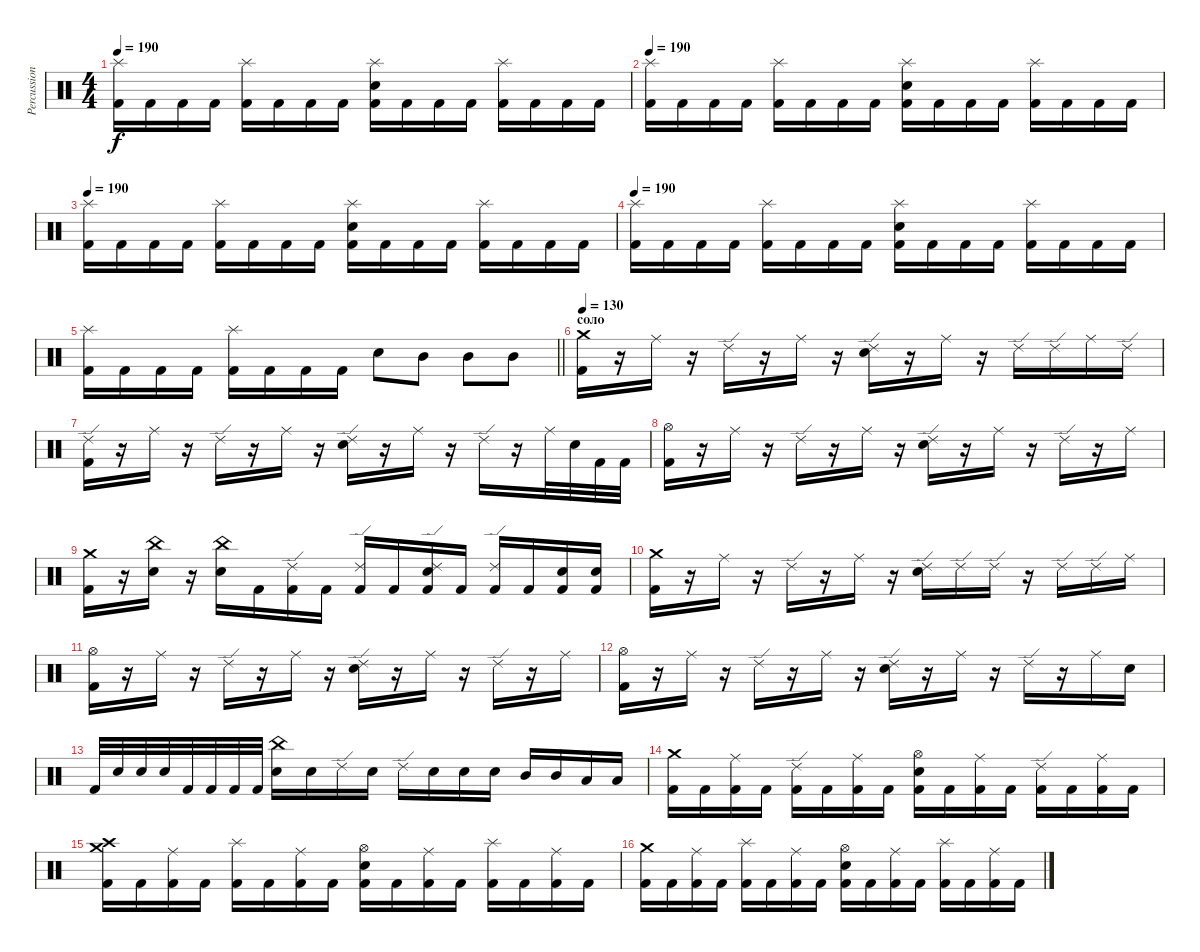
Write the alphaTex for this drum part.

\track ("Percussion" "Percussion") {instrument percussion}
\staff {score}
\articulation defaults
\ts (4 4)
\tempo 190
\clef neutral
\ks c
("Splash (hit)" "Kick (hit) 2").16{dy f} "Kick (hit) 2".16 "Kick (hit) 2".16 "Kick (hit) 2".16 ("Splash (hit)" "Kick (hit) 2").16 "Kick (hit) 2".16 "Kick (hit) 2".16 "Kick (hit) 2".16 ("Splash (hit)" "Kick (hit) 2" "Electric Snare (hit)").16 "Kick (hit) 2".16 "Kick (hit) 2".16 "Kick (hit) 2".16 ("Splash (hit)" "Kick (hit) 2").16 "Kick (hit) 2".16 "Kick (hit) 2".16 "Kick (hit) 2".16 |
\tempo 190
("Splash (hit)" "Kick (hit) 2").16 "Kick (hit) 2".16 "Kick (hit) 2".16 "Kick (hit) 2".16 ("Splash (hit)" "Kick (hit) 2").16 "Kick (hit) 2".16 "Kick (hit) 2".16 "Kick (hit) 2".16 ("Splash (hit)" "Kick (hit) 2" "Electric Snare (hit)").16 "Kick (hit) 2".16 "Kick (hit) 2".16 "Kick (hit) 2".16 ("Splash (hit)" "Kick (hit) 2").16 "Kick (hit) 2".16 "Kick (hit) 2".16 "Kick (hit) 2".16 |
\tempo 190
("Splash (hit)" "Kick (hit) 2").16 "Kick (hit) 2".16 "Kick (hit) 2".16 "Kick (hit) 2".16 ("Splash (hit)" "Kick (hit) 2").16 "Kick (hit) 2".16 "Kick (hit) 2".16 "Kick (hit) 2".16 ("Splash (hit)" "Kick (hit) 2" "Electric Snare (hit)").16 "Kick (hit) 2".16 "Kick (hit) 2".16 "Kick (hit) 2".16 ("Splash (hit)" "Kick (hit) 2").16 "Kick (hit) 2".16 "Kick (hit) 2".16 "Kick (hit) 2".16 |
\tempo 190
("Splash (hit)" "Kick (hit) 2").16 "Kick (hit) 2".16 "Kick (hit) 2".16 "Kick (hit) 2".16 ("Splash (hit)" "Kick (hit) 2").16 "Kick (hit) 2".16 "Kick (hit) 2".16 "Kick (hit) 2".16 ("Splash (hit)" "Kick (hit) 2" "Electric Snare (hit)").16 "Kick (hit) 2".16 "Kick (hit) 2".16 "Kick (hit) 2".16 ("Splash (hit)" "Kick (hit) 2").16 "Kick (hit) 2".16 "Kick (hit) 2".16 "Kick (hit) 2".16 |
\barLineRight lightlight
("Splash (hit)" "Kick (hit) 2").16 "Kick (hit) 2".16 "Kick (hit) 2".16 "Kick (hit) 2".16 ("Splash (hit)" "Kick (hit) 2").16 "Kick (hit) 2".16 "Kick (hit) 2".16 "Kick (hit) 2".16 "Electric Snare (hit)".8 "Mid Tom (hit)".8 "Mid Tom (hit)".8 "Mid Tom (hit)".8 |
\section ("" "соло")
\tempo 130
("Crash medium (hit)" "Kick (hit) 2").16 r.16 "Ride (middle)".16 r.16 "Ride (edge) 2".16 r.16 "Ride (middle)".16 r.16 ("Ride (edge) 2" "Electric Snare (hit)").16 r.16 "Ride (middle)".16 r.16 "Ride (edge) 2".16 "Ride (edge) 2".16 "Ride (middle)".16 "Ride (edge) 2".16 |
("Ride (edge) 2" "Kick (hit) 2").16 r.16 "Ride (middle)".16 r.16 "Ride (edge) 2".16 r.16 "Ride (middle)".16 r.16 ("Ride (edge) 2" "Electric Snare (hit)").16 r.16 "Ride (middle)".16 r.16 "Ride (edge) 2".16 r.16 "Ride (middle)".32 "Snare (hit)".32 "Kick (hit) 2".32 "Kick (hit) 2".32 |
("Hi-Hat (open)" "Kick (hit) 2").16 r.16 "Ride (middle)".16 r.16 "Ride (edge) 2".16 r.16 "Ride (middle)".16 r.16 ("Ride (edge) 2" "Electric Snare (hit)").16 r.16 "Ride (middle)".16 r.16 "Ride (edge) 2".16 r.16 "Ride (middle)".16 |
("Crash medium (hit)" "Kick (hit) 2").16 r.16 ("China (hit)" "Electric Snare (hit)").16 r.16 ("China (hit)" "Electric Snare (hit)").16 "Kick (hit) 2".16 ("Kick (hit) 2" "Ride (edge) 2").16 "Kick (hit) 2".16 ("Kick (hit) 2" "Ride (edge) 2").16 "Kick (hit) 2".16 ("Kick (hit) 2" "Electric Snare (hit)" "Ride (edge) 2").16 "Kick (hit) 2".16 ("Kick (hit) 2" "Ride (edge) 2").16 "Kick (hit) 2".16 ("Kick (hit) 2" "Electric Snare (hit)").16 ("Kick (hit) 2" "Electric Snare (hit)").16 |
("Crash medium (hit)" "Kick (hit) 2").16 r.16 "Ride (middle)".16 r.16 "Ride (edge) 2".16 r.16 "Ride (middle)".16 r.16 ("Ride (edge) 2" "Electric Snare (hit)").16 "Ride (edge) 2".16 "Ride (edge) 2".16 r.16 "Ride (edge) 2".16 "Ride (edge) 2".16 "Ride (middle)".16 |
("Hi-Hat (open)" "Kick (hit) 2").16 r.16 "Ride (middle)".16 r.16 "Ride (edge) 2".16 r.16 "Ride (middle)".16 r.16 ("Ride (edge) 2" "Electric Snare (hit)").16 r.16 "Ride (middle)".16 r.16 "Ride (edge) 2".16 r.16 "Ride (middle)".16 |
("Hi-Hat (open)" "Kick (hit) 2").16 r.16 "Ride (middle)".16 r.16 "Ride (edge) 2".16 r.16 "Ride (middle)".16 r.16 ("Ride (edge) 2" "Electric Snare (hit)").16 r.16 "Ride (middle)".16 r.16 "Ride (edge) 2".16 r.16 "Ride (middle)".16 "Snare (hit)".16 |
"Kick (hit) 2".32 "Snare (hit)".32 "Snare (hit)".32 "Snare (hit)".32 "Kick (hit) 2".32 "Kick (hit) 2".32 "Kick (hit) 2".32 "Kick (hit) 2".32 ("China (hit)" "Electric Snare (hit)").16 "Snare (hit)".16 "Ride (edge) 2".16 "Snare (hit)".16 "Ride (edge) 2".16 "Snare (hit)".16 "Electric Snare (hit)".16 "Electric Snare (hit)".16 "Mid Tom (hit)".16 "Mid Tom (hit)".16 "Low Tom (hit)".16 "Low Tom (hit)".16 |
("Crash medium (hit)" "Kick (hit) 2").16 "Kick (hit) 2".16 ("Kick (hit) 2" "Ride (middle)").16 "Kick (hit) 2".16 ("Kick (hit) 2" "Ride (edge) 2").16 "Kick (hit) 2".16 ("Kick (hit) 2" "Ride (middle)").16 "Kick (hit) 2".16 ("Kick (hit) 2" "Hi-Hat (open)" "Electric Snare (hit)").16 "Kick (hit) 2".16 ("Kick (hit) 2" "Ride (middle)").16 "Kick (hit) 2".16 ("Kick (hit) 2" "Ride (edge) 2").16 "Kick (hit) 2".16 ("Kick (hit) 2" "Ride (middle)").16 "Kick (hit) 2".16 |
("Crash medium (hit)" "Kick (hit) 2" "Crash high (hit)").16 "Kick (hit) 2".16 ("Kick (hit) 2" "Ride (middle)").16 "Kick (hit) 2".16 ("Kick (hit) 2" "Splash (hit)").16 "Kick (hit) 2".16 ("Kick (hit) 2" "Ride (middle)").16 "Kick (hit) 2".16 ("Kick (hit) 2" "Hi-Hat (open)" "Electric Snare (hit)").16 "Kick (hit) 2".16 ("Kick (hit) 2" "Ride (middle)").16 "Kick (hit) 2".16 ("Kick (hit) 2" "Splash (hit)").16 "Kick (hit) 2".16 ("Kick (hit) 2" "Ride (middle)").16 "Kick (hit) 2".16 |
("Crash medium (hit)" "Kick (hit) 2").16 "Kick (hit) 2".16 ("Kick (hit) 2" "Ride (middle)").16 "Kick (hit) 2".16 ("Kick (hit) 2" "Splash (hit)").16 "Kick (hit) 2".16 ("Kick (hit) 2" "Ride (middle)").16 "Kick (hit) 2".16 ("Kick (hit) 2" "Hi-Hat (open)" "Electric Snare (hit)").16 "Kick (hit) 2".16 ("Kick (hit) 2" "Ride (middle)").16 "Kick (hit) 2".16 ("Kick (hit) 2" "Splash (hit)").16 "Kick (hit) 2".16 ("Kick (hit) 2" "Ride (middle)").16 "Kick (hit) 2".16
